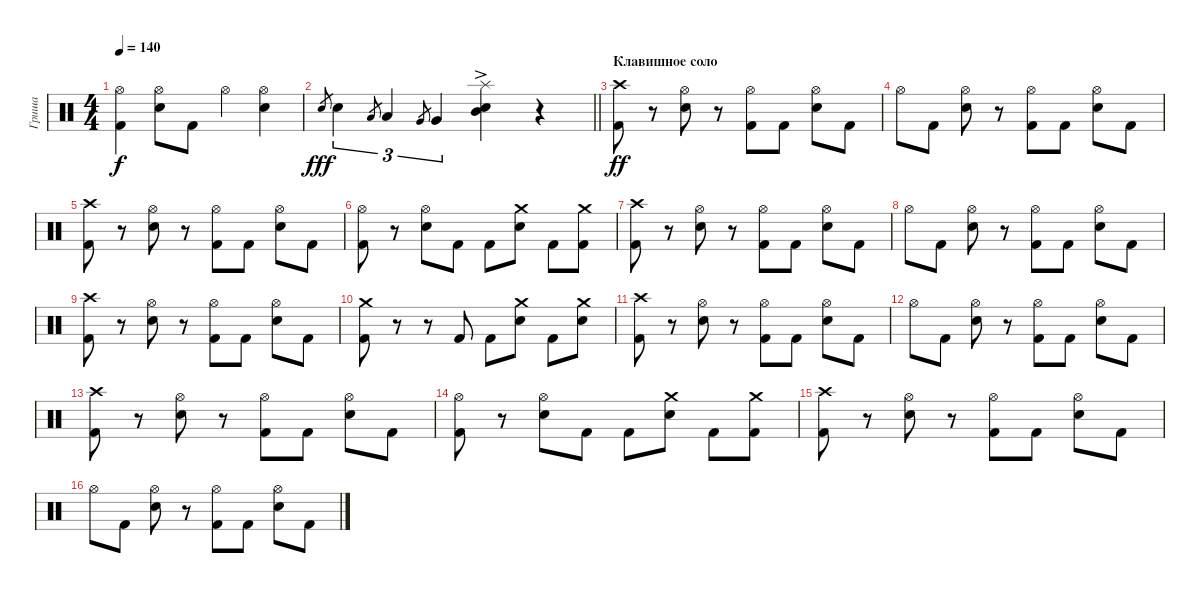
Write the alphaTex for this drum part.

\track ("Гриша" "Гриша") {instrument percussion}
\staff {score}
\articulation defaults
\ts (4 4)
\tempo 140
\clef neutral
\ks c
("Hi-Hat (open)" "Kick (hit) 2").4{dy f} ("Hi-Hat (open)" "Electric Snare (hit)").8 "Kick (hit) 2".8 "Hi-Hat (open)".4 ("Hi-Hat (open)" "Electric Snare (hit)").4 |
\barLineRight lightlight "Electric Snare (hit)".8{gr dy fff} "Electric Snare (hit)".4{tu (3 2)} "Low Tom (hit)".8{gr} "Low Tom (hit)".4{tu (3 2)} "Very Low Tom (hit)".8{gr} "Very Low Tom (hit)".4{tu (3 2)}
("Electric Snare (hit)"{ac} "Splash (hit)" "Mid Tom (hit)").4 r.4 |
\section ("" "Клавишное соло")
("Crash high (hit)" "Kick (hit) 2").8{dy ff} r.8 ("Hi-Hat (open)" "Electric Snare (hit)").8 r.8 ("Hi-Hat (open)" "Kick (hit) 2").8 "Kick (hit) 2".8 ("Hi-Hat (open)" "Electric Snare (hit)").8 "Kick (hit) 2".8 |
"Hi-Hat (open)".8 "Kick (hit) 2".8 ("Hi-Hat (open)" "Electric Snare (hit)").8 r.8 ("Hi-Hat (open)" "Kick (hit) 2").8 "Kick (hit) 2".8 ("Hi-Hat (open)" "Electric Snare (hit)").8 "Kick (hit) 2".8 |
("Crash high (hit)" "Kick (hit) 2").8 r.8 ("Hi-Hat (open)" "Electric Snare (hit)").8 r.8 ("Hi-Hat (open)" "Kick (hit) 2").8 "Kick (hit) 2".8 ("Hi-Hat (open)" "Electric Snare (hit)").8 "Kick (hit) 2".8 |
("Hi-Hat (open)" "Kick (hit) 2").8 r.8 ("Hi-Hat (open)" "Electric Snare (hit)").8 "Kick (hit) 2".8 "Kick (hit) 2".8 ("Crash medium (hit)" "Electric Snare (hit)").8 "Kick (hit) 2".8 ("Crash medium (hit)" "Kick (hit) 2").8 |
("Crash high (hit)" "Kick (hit) 2").8 r.8 ("Hi-Hat (open)" "Electric Snare (hit)").8 r.8 ("Hi-Hat (open)" "Kick (hit) 2").8 "Kick (hit) 2".8 ("Hi-Hat (open)" "Electric Snare (hit)").8 "Kick (hit) 2".8 |
"Hi-Hat (open)".8 "Kick (hit) 2".8 ("Hi-Hat (open)" "Electric Snare (hit)").8 r.8 ("Hi-Hat (open)" "Kick (hit) 2").8 "Kick (hit) 2".8 ("Hi-Hat (open)" "Electric Snare (hit)").8 "Kick (hit) 2".8 |
("Crash high (hit)" "Kick (hit) 2").8 r.8 ("Hi-Hat (open)" "Electric Snare (hit)").8 r.8 ("Hi-Hat (open)" "Kick (hit) 2").8 "Kick (hit) 2".8 ("Hi-Hat (open)" "Electric Snare (hit)").8 "Kick (hit) 2".8 |
("Crash medium (hit)" "Kick (hit) 2").8 r.8 r.8 "Kick (hit) 2".8 "Kick (hit) 2".8 ("Crash medium (hit)" "Electric Snare (hit)").8 "Kick (hit) 2".8 ("Crash medium (hit)" "Electric Snare (hit)").8 |
("Crash high (hit)" "Kick (hit) 2").8 r.8 ("Hi-Hat (open)" "Electric Snare (hit)").8 r.8 ("Hi-Hat (open)" "Kick (hit) 2").8 "Kick (hit) 2".8 ("Hi-Hat (open)" "Electric Snare (hit)").8 "Kick (hit) 2".8 |
"Hi-Hat (open)".8 "Kick (hit) 2".8 ("Hi-Hat (open)" "Electric Snare (hit)").8 r.8 ("Hi-Hat (open)" "Kick (hit) 2").8 "Kick (hit) 2".8 ("Hi-Hat (open)" "Electric Snare (hit)").8 "Kick (hit) 2".8 |
("Crash high (hit)" "Kick (hit) 2").8 r.8 ("Hi-Hat (open)" "Electric Snare (hit)").8 r.8 ("Hi-Hat (open)" "Kick (hit) 2").8 "Kick (hit) 2".8 ("Hi-Hat (open)" "Electric Snare (hit)").8 "Kick (hit) 2".8 |
("Hi-Hat (open)" "Kick (hit) 2").8 r.8 ("Hi-Hat (open)" "Electric Snare (hit)").8 "Kick (hit) 2".8 "Kick (hit) 2".8 ("Crash medium (hit)" "Electric Snare (hit)").8 "Kick (hit) 2".8 ("Crash medium (hit)" "Kick (hit) 2").8 |
("Crash high (hit)" "Kick (hit) 2").8 r.8 ("Hi-Hat (open)" "Electric Snare (hit)").8 r.8 ("Hi-Hat (open)" "Kick (hit) 2").8 "Kick (hit) 2".8 ("Hi-Hat (open)" "Electric Snare (hit)").8 "Kick (hit) 2".8 |
"Hi-Hat (open)".8 "Kick (hit) 2".8 ("Hi-Hat (open)" "Electric Snare (hit)").8 r.8 ("Hi-Hat (open)" "Kick (hit) 2").8 "Kick (hit) 2".8 ("Hi-Hat (open)" "Electric Snare (hit)").8 "Kick (hit) 2".8
